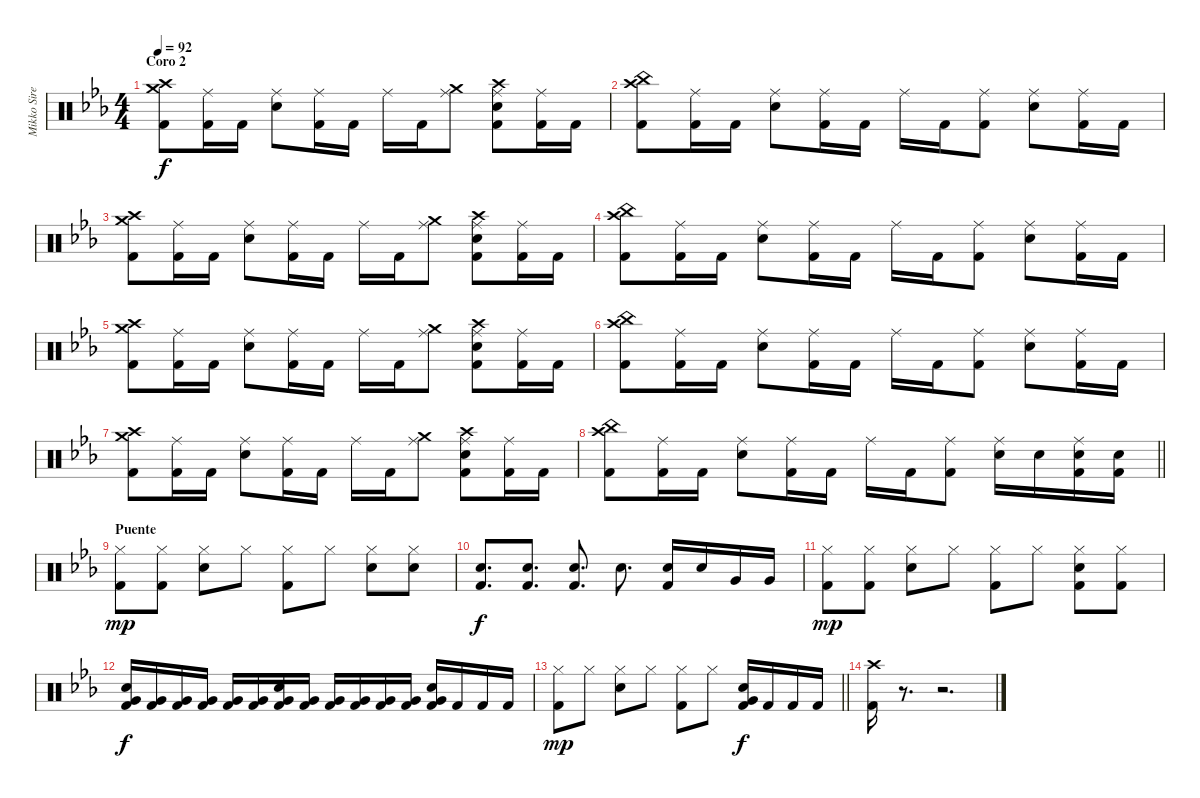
\track ("Mikko Siren" "Mikko Sire") {instrument percussion}
\staff {score}
\articulation defaults
\ts (4 4)
\section ("" "Coro 2")
\tempo 92
\clef neutral
\ks cminor
("Crash high (hit)" "Crash medium (hit)" "Kick (hit) 2").8{dy f} ("Ride (middle)" "Kick (hit) 2").16 "Kick (hit) 2".16 ("Ride (middle)" "Snare (hit) 2").8 ("Ride (middle)" "Kick (hit) 2").16 "Kick (hit) 2".16 "Ride (middle)".16 "Kick (hit) 2".16 ("Ride (middle)" "Crash medium (hit)").8 ("Ride (middle)" "Crash high (hit)" "Snare (hit) 2" "Kick (hit) 2").8 ("Ride (middle)" "Kick (hit) 2").16 "Kick (hit) 2".16 |
("Crash high (hit)" "China (hit)" "Kick (hit) 2").8 ("Ride (middle)" "Kick (hit) 2").16 "Kick (hit) 2".16 ("Ride (middle)" "Snare (hit) 2").8 ("Ride (middle)" "Kick (hit) 2").16 "Kick (hit) 2".16 "Ride (middle)".16 "Kick (hit) 2".16 ("Ride (middle)" "Kick (hit) 2").8 ("Ride (middle)" "Snare (hit) 2").8 ("Ride (middle)" "Kick (hit) 2").16 "Kick (hit) 2".16 |
("Crash high (hit)" "Crash medium (hit)" "Kick (hit) 2").8 ("Ride (middle)" "Kick (hit) 2").16 "Kick (hit) 2".16 ("Ride (middle)" "Snare (hit) 2").8 ("Ride (middle)" "Kick (hit) 2").16 "Kick (hit) 2".16 "Ride (middle)".16 "Kick (hit) 2".16 ("Ride (middle)" "Crash medium (hit)").8 ("Ride (middle)" "Crash high (hit)" "Snare (hit) 2" "Kick (hit) 2").8 ("Ride (middle)" "Kick (hit) 2").16 "Kick (hit) 2".16 |
("Crash high (hit)" "China (hit)" "Kick (hit) 2").8 ("Ride (middle)" "Kick (hit) 2").16 "Kick (hit) 2".16 ("Ride (middle)" "Snare (hit) 2").8 ("Ride (middle)" "Kick (hit) 2").16 "Kick (hit) 2".16 "Ride (middle)".16 "Kick (hit) 2".16 ("Ride (middle)" "Kick (hit) 2").8 ("Ride (middle)" "Snare (hit) 2").8 ("Ride (middle)" "Kick (hit) 2").16 "Kick (hit) 2".16 |
("Crash high (hit)" "Crash medium (hit)" "Kick (hit) 2").8 ("Ride (middle)" "Kick (hit) 2").16 "Kick (hit) 2".16 ("Ride (middle)" "Snare (hit) 2").8 ("Ride (middle)" "Kick (hit) 2").16 "Kick (hit) 2".16 "Ride (middle)".16 "Kick (hit) 2".16 ("Ride (middle)" "Crash medium (hit)").8 ("Ride (middle)" "Crash high (hit)" "Snare (hit) 2" "Kick (hit) 2").8 ("Ride (middle)" "Kick (hit) 2").16 "Kick (hit) 2".16 |
("Crash high (hit)" "China (hit)" "Kick (hit) 2").8 ("Ride (middle)" "Kick (hit) 2").16 "Kick (hit) 2".16 ("Ride (middle)" "Snare (hit) 2").8 ("Ride (middle)" "Kick (hit) 2").16 "Kick (hit) 2".16 "Ride (middle)".16 "Kick (hit) 2".16 ("Ride (middle)" "Kick (hit) 2").8 ("Ride (middle)" "Snare (hit) 2").8 ("Ride (middle)" "Kick (hit) 2").16 "Kick (hit) 2".16 |
("Crash high (hit)" "Crash medium (hit)" "Kick (hit) 2").8 ("Ride (middle)" "Kick (hit) 2").16 "Kick (hit) 2".16 ("Ride (middle)" "Snare (hit) 2").8 ("Ride (middle)" "Kick (hit) 2").16 "Kick (hit) 2".16 "Ride (middle)".16 "Kick (hit) 2".16 ("Ride (middle)" "Crash medium (hit)").8 ("Ride (middle)" "Crash high (hit)" "Snare (hit) 2" "Kick (hit) 2").8 ("Ride (middle)" "Kick (hit) 2").16 "Kick (hit) 2".16 |
\barLineRight lightlight
("Crash high (hit)" "China (hit)" "Kick (hit) 2").8 ("Ride (middle)" "Kick (hit) 2").16 "Kick (hit) 2".16 ("Ride (middle)" "Snare (hit) 2").8 ("Ride (middle)" "Kick (hit) 2").16 "Kick (hit) 2".16 "Ride (middle)".16 "Kick (hit) 2".16 ("Ride (middle)" "Kick (hit) 2").8 ("Ride (middle)" "Snare (hit) 2").16 "Snare (hit) 2".16 ("Ride (middle)" "Snare (hit) 2" "Kick (hit) 2").16 ("Snare (hit) 2" "Kick (hit) 2").16 |
\section ("" "Puente")
("Hi-Hat (closed)" "Kick (hit) 2").8{dy mp} ("Hi-Hat (closed)" "Kick (hit) 2").8 ("Hi-Hat (closed)" "Snare (hit) 2").8 "Hi-Hat (closed)".8 ("Hi-Hat (closed)" "Kick (hit) 2").8 "Hi-Hat (closed)".8 ("Hi-Hat (closed)" "Snare (hit) 2").8 ("Hi-Hat (closed)" "Snare (hit) 2").8 |
("Snare (hit) 2" "Kick (hit) 2").8{d dy f} ("Snare (hit) 2" "Kick (hit) 2").8{d} ("Snare (hit) 2" "Kick (hit) 2").8{d} "Snare (hit) 2".8{d} ("Snare (hit) 2" "Kick (hit) 2").16 "Snare (hit) 2".16 "Very Low Tom (hit)".16 "Very Low Tom (hit)".16 |
("Hi-Hat (closed)" "Kick (hit) 2").8{dy mp} ("Hi-Hat (closed)" "Kick (hit) 2").8 ("Hi-Hat (closed)" "Snare (hit) 2").8 "Hi-Hat (closed)".8 ("Hi-Hat (closed)" "Kick (hit) 2").8 "Hi-Hat (closed)".8 ("Hi-Hat (closed)" "Snare (hit) 2" "Kick (hit) 2").8 ("Hi-Hat (closed)" "Kick (hit) 2").8 |
("Kick (hit) 2" "Snare (hit) 2" "Very Low Tom (hit)").16{dy f} ("Kick (hit) 2" "Very Low Tom (hit)").16 ("Kick (hit) 2" "Very Low Tom (hit)").16 ("Kick (hit) 2" "Very Low Tom (hit)").16 ("Kick (hit) 2" "Very Low Tom (hit)").16 ("Kick (hit) 2" "Very Low Tom (hit)").16 ("Kick (hit) 2" "Snare (hit) 2" "Very Low Tom (hit)").16 ("Kick (hit) 2" "Very Low Tom (hit)").16 ("Kick (hit) 2" "Very Low Tom (hit)").16 ("Kick (hit) 2" "Very Low Tom (hit)").16 ("Kick (hit) 2" "Very Low Tom (hit)").16 ("Kick (hit) 2" "Very Low Tom (hit)").16 ("Kick (hit) 2" "Snare (hit) 2" "Very Low Tom (hit)").16 "Kick (hit) 2".16 "Kick (hit) 2".16 "Kick (hit) 2".16 |
\barLineRight lightlight
("Hi-Hat (closed)" "Kick (hit) 2").8{dy mp} "Hi-Hat (closed)".8 ("Hi-Hat (closed)" "Snare (hit) 2").8 "Hi-Hat (closed)".8 ("Hi-Hat (closed)" "Kick (hit) 2").8 "Hi-Hat (closed)".8 ("Kick (hit) 2" "Snare (hit) 2" "Very Low Tom (hit)").16{dy f} "Kick (hit) 2".16 "Kick (hit) 2".16 "Kick (hit) 2".16 |
("Crash high (hit)" "Kick (hit) 2").16 r.8{d} r.2{d}
